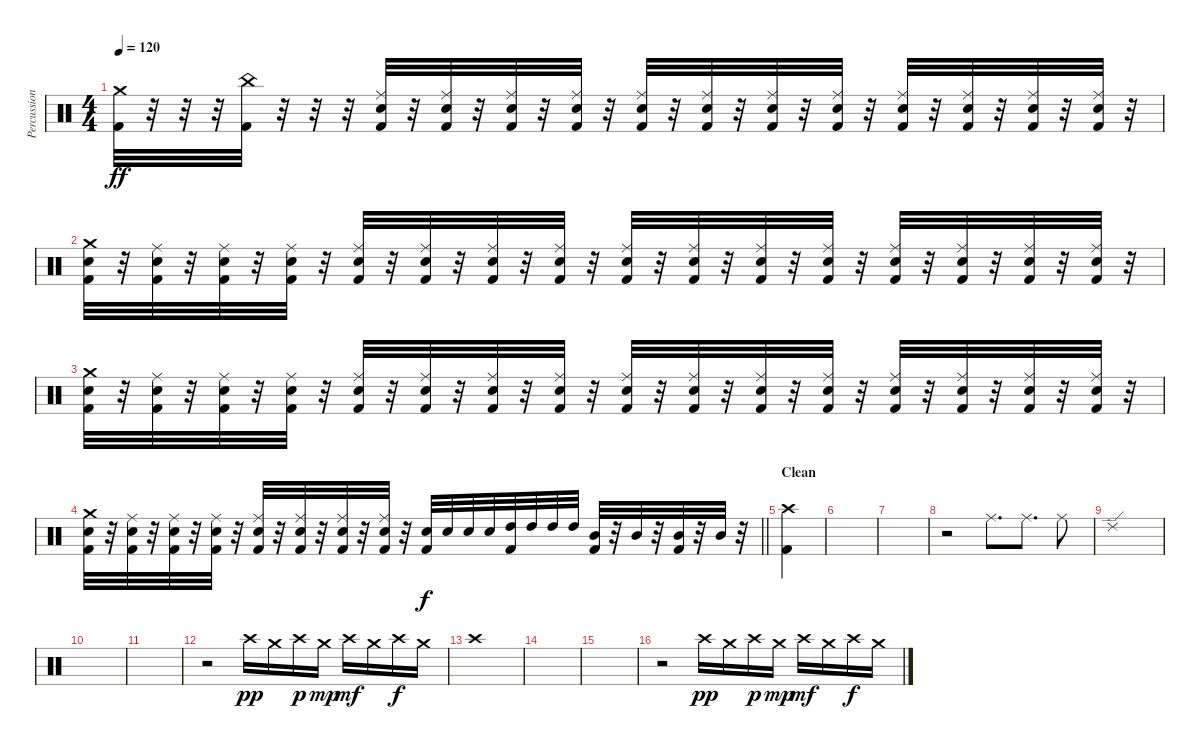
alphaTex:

\track ("Percussion" "Percussion") {instrument percussion}
\staff {score}
\articulation defaults
\ts (4 4)
\tempo 120
\clef neutral
\ks c
("Crash medium (hit)" "Kick (hit) 2").32{dy ff} r.32 r.32 r.32 ("China (hit)" "Kick (hit) 2").32 r.32 r.32 r.32 ("Ride (middle)" "Snare (hit) 2" "Kick (hit) 2").32 r.32 ("Ride (middle)" "Snare (hit) 2" "Kick (hit) 2").32 r.32 ("Ride (middle)" "Snare (hit) 2" "Kick (hit) 2").32 r.32 ("Ride (middle)" "Snare (hit) 2" "Kick (hit) 2").32 r.32 ("Ride (middle)" "Snare (hit) 2" "Kick (hit) 2").32 r.32 ("Ride (middle)" "Snare (hit) 2" "Kick (hit) 2").32 r.32 ("Ride (middle)" "Snare (hit) 2" "Kick (hit) 2").32 r.32 ("Ride (middle)" "Snare (hit) 2" "Kick (hit) 2").32 r.32 ("Ride (middle)" "Snare (hit) 2" "Kick (hit) 2").32 r.32 ("Ride (middle)" "Snare (hit) 2" "Kick (hit) 2").32 r.32 ("Ride (middle)" "Snare (hit) 2" "Kick (hit) 2").32 r.32 ("Ride (middle)" "Snare (hit) 2" "Kick (hit) 2").32 r.32 |
("Crash medium (hit)" "Snare (hit) 2" "Kick (hit) 2").32 r.32 ("Ride (middle)" "Snare (hit) 2" "Kick (hit) 2").32 r.32 ("Ride (middle)" "Snare (hit) 2" "Kick (hit) 2").32 r.32 ("Ride (middle)" "Snare (hit) 2" "Kick (hit) 2").32 r.32 ("Ride (middle)" "Snare (hit) 2" "Kick (hit) 2").32 r.32 ("Ride (middle)" "Snare (hit) 2" "Kick (hit) 2").32 r.32 ("Ride (middle)" "Snare (hit) 2" "Kick (hit) 2").32 r.32 ("Ride (middle)" "Snare (hit) 2" "Kick (hit) 2").32 r.32 ("Ride (middle)" "Snare (hit) 2" "Kick (hit) 2").32 r.32 ("Ride (middle)" "Snare (hit) 2" "Kick (hit) 2").32 r.32 ("Ride (middle)" "Snare (hit) 2" "Kick (hit) 2").32 r.32 ("Ride (middle)" "Snare (hit) 2" "Kick (hit) 2").32 r.32 ("Ride (middle)" "Snare (hit) 2" "Kick (hit) 2").32 r.32 ("Ride (middle)" "Snare (hit) 2" "Kick (hit) 2").32 r.32 ("Ride (middle)" "Snare (hit) 2" "Kick (hit) 2").32 r.32 ("Ride (middle)" "Snare (hit) 2" "Kick (hit) 2").32 r.32 |
("Crash medium (hit)" "Snare (hit) 2" "Kick (hit) 2").32 r.32 ("Ride (middle)" "Snare (hit) 2" "Kick (hit) 2").32 r.32 ("Ride (middle)" "Snare (hit) 2" "Kick (hit) 2").32 r.32 ("Ride (middle)" "Snare (hit) 2" "Kick (hit) 2").32 r.32 ("Ride (middle)" "Snare (hit) 2" "Kick (hit) 2").32 r.32 ("Ride (middle)" "Snare (hit) 2" "Kick (hit) 2").32 r.32 ("Ride (middle)" "Snare (hit) 2" "Kick (hit) 2").32 r.32 ("Ride (middle)" "Snare (hit) 2" "Kick (hit) 2").32 r.32 ("Ride (middle)" "Snare (hit) 2" "Kick (hit) 2").32 r.32 ("Ride (middle)" "Snare (hit) 2" "Kick (hit) 2").32 r.32 ("Ride (middle)" "Snare (hit) 2" "Kick (hit) 2").32 r.32 ("Ride (middle)" "Snare (hit) 2" "Kick (hit) 2").32 r.32 ("Ride (middle)" "Snare (hit) 2" "Kick (hit) 2").32 r.32 ("Ride (middle)" "Snare (hit) 2" "Kick (hit) 2").32 r.32 ("Ride (middle)" "Snare (hit) 2" "Kick (hit) 2").32 r.32 ("Ride (middle)" "Snare (hit) 2" "Kick (hit) 2").32 r.32 |
\barLineRight lightlight
("Crash medium (hit)" "Snare (hit) 2" "Kick (hit) 2").32 r.32 ("Ride (middle)" "Snare (hit) 2" "Kick (hit) 2").32 r.32 ("Ride (middle)" "Snare (hit) 2" "Kick (hit) 2").32 r.32 ("Ride (middle)" "Snare (hit) 2" "Kick (hit) 2").32 r.32 ("Ride (middle)" "Snare (hit) 2" "Kick (hit) 2").32 r.32 ("Ride (middle)" "Snare (hit) 2" "Kick (hit) 2").32 r.32 ("Ride (middle)" "Snare (hit) 2" "Kick (hit) 2").32 r.32 ("Ride (middle)" "Snare (hit) 2" "Kick (hit) 2").32 r.32 ("Snare (hit) 2" "Kick (hit) 2").32{dy f} "Snare (hit) 2".32 "Snare (hit) 2".32 "Snare (hit) 2".32 ("High Tom (hit)" "Kick (hit) 2").32 "High Tom (hit)".32 "High Tom (hit)".32 "High Tom (hit)".32 ("Mid Tom (hit)" "Kick (hit) 2").32 r.32 "Mid Tom (hit)".32 r.32 ("Mid Tom (hit)" "Kick (hit) 2").32 r.32 "Mid Tom (hit)".32 r.32 |
\section ("" "Clean")
("Crash high (hit)" "Kick (hit) 2").4 |
|
|
r.2 "Ride (middle)".8{d} "Ride (middle)".8{d} "Ride (middle)".8 |
"Ride (edge) 2".1 |
|
|
r.2 "Crash high (hit)".16{dy pp} "Crash medium (hit)".16 "Crash high (hit)".16{dy p} "Crash medium (hit)".16{dy mp} "Crash high (hit)".16{dy mf} "Crash medium (hit)".16 "Crash high (hit)".16{dy f} "Crash medium (hit)".16 |
"Crash high (hit)".1 |
|
|
r.2 "Crash high (hit)".16{dy pp} "Crash medium (hit)".16 "Crash high (hit)".16{dy p} "Crash medium (hit)".16{dy mp} "Crash high (hit)".16{dy mf} "Crash medium (hit)".16 "Crash high (hit)".16{dy f} "Crash medium (hit)".16
